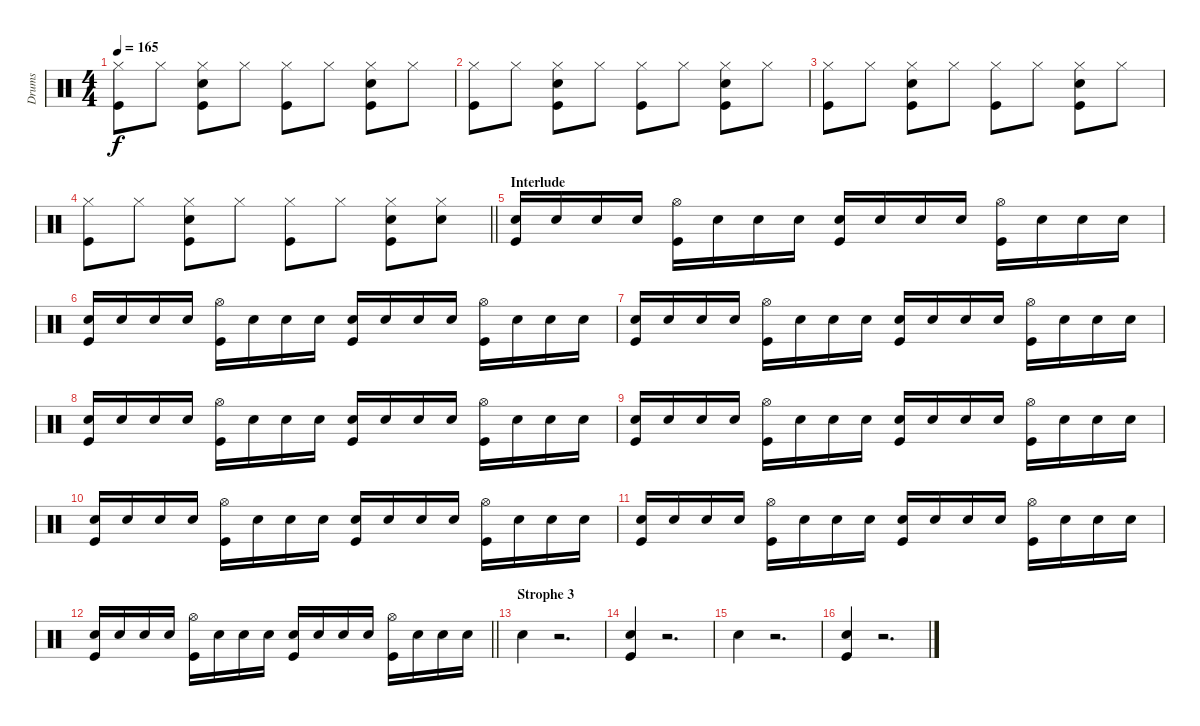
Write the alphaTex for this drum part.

\track ("Drums" "Drums") {instrument percussion}
\staff {score}
\articulation defaults
\ts (4 4)
\tempo 165
\clef neutral
\ks c
("Hi-Hat (closed)" "Kick (hit)").8{dy f} "Hi-Hat (closed)".8 ("Hi-Hat (closed)" "Kick (hit)" "Snare (hit) 2").8 "Hi-Hat (closed)".8 ("Hi-Hat (closed)" "Kick (hit)").8 "Hi-Hat (closed)".8 ("Hi-Hat (closed)" "Kick (hit)" "Snare (hit) 2").8 "Hi-Hat (closed)".8 |
("Hi-Hat (closed)" "Kick (hit)").8 "Hi-Hat (closed)".8 ("Hi-Hat (closed)" "Kick (hit)" "Snare (hit) 2").8 "Hi-Hat (closed)".8 ("Hi-Hat (closed)" "Kick (hit)").8 "Hi-Hat (closed)".8 ("Hi-Hat (closed)" "Kick (hit)" "Snare (hit) 2").8 "Hi-Hat (closed)".8 |
("Hi-Hat (closed)" "Kick (hit)").8 "Hi-Hat (closed)".8 ("Hi-Hat (closed)" "Kick (hit)" "Snare (hit) 2").8 "Hi-Hat (closed)".8 ("Hi-Hat (closed)" "Kick (hit)").8 "Hi-Hat (closed)".8 ("Hi-Hat (closed)" "Kick (hit)" "Snare (hit) 2").8 "Hi-Hat (closed)".8 |
\barLineRight lightlight
("Hi-Hat (closed)" "Kick (hit)").8 "Hi-Hat (closed)".8 ("Hi-Hat (closed)" "Kick (hit)" "Snare (hit) 2").8 "Hi-Hat (closed)".8 ("Hi-Hat (closed)" "Kick (hit)").8 "Hi-Hat (closed)".8 ("Hi-Hat (closed)" "Kick (hit)" "Snare (hit) 2").8 ("Hi-Hat (closed)" "Snare (hit) 2").8 |
\section ("" "Interlude")
("Kick (hit)" "Snare (hit) 2").16 "Snare (hit) 2".16 "Snare (hit) 2".16 "Snare (hit) 2".16 ("Hi-Hat (open)" "Kick (hit)").16 "Snare (hit) 2".16 "Snare (hit) 2".16 "Snare (hit) 2".16 ("Kick (hit)" "Snare (hit) 2").16 "Snare (hit) 2".16 "Snare (hit) 2".16 "Snare (hit) 2".16 ("Hi-Hat (open)" "Kick (hit)").16 "Snare (hit) 2".16 "Snare (hit) 2".16 "Snare (hit) 2".16 |
("Kick (hit)" "Snare (hit) 2").16 "Snare (hit) 2".16 "Snare (hit) 2".16 "Snare (hit) 2".16 ("Hi-Hat (open)" "Kick (hit)").16 "Snare (hit) 2".16 "Snare (hit) 2".16 "Snare (hit) 2".16 ("Kick (hit)" "Snare (hit) 2").16 "Snare (hit) 2".16 "Snare (hit) 2".16 "Snare (hit) 2".16 ("Hi-Hat (open)" "Kick (hit)").16 "Snare (hit) 2".16 "Snare (hit) 2".16 "Snare (hit) 2".16 |
("Kick (hit)" "Snare (hit) 2").16 "Snare (hit) 2".16 "Snare (hit) 2".16 "Snare (hit) 2".16 ("Hi-Hat (open)" "Kick (hit)").16 "Snare (hit) 2".16 "Snare (hit) 2".16 "Snare (hit) 2".16 ("Kick (hit)" "Snare (hit) 2").16 "Snare (hit) 2".16 "Snare (hit) 2".16 "Snare (hit) 2".16 ("Hi-Hat (open)" "Kick (hit)").16 "Snare (hit) 2".16 "Snare (hit) 2".16 "Snare (hit) 2".16 |
("Kick (hit)" "Snare (hit) 2").16 "Snare (hit) 2".16 "Snare (hit) 2".16 "Snare (hit) 2".16 ("Hi-Hat (open)" "Kick (hit)").16 "Snare (hit) 2".16 "Snare (hit) 2".16 "Snare (hit) 2".16 ("Kick (hit)" "Snare (hit) 2").16 "Snare (hit) 2".16 "Snare (hit) 2".16 "Snare (hit) 2".16 ("Hi-Hat (open)" "Kick (hit)").16 "Snare (hit) 2".16 "Snare (hit) 2".16 "Snare (hit) 2".16 |
("Kick (hit)" "Snare (hit) 2").16 "Snare (hit) 2".16 "Snare (hit) 2".16 "Snare (hit) 2".16 ("Hi-Hat (open)" "Kick (hit)").16 "Snare (hit) 2".16 "Snare (hit) 2".16 "Snare (hit) 2".16 ("Kick (hit)" "Snare (hit) 2").16 "Snare (hit) 2".16 "Snare (hit) 2".16 "Snare (hit) 2".16 ("Hi-Hat (open)" "Kick (hit)").16 "Snare (hit) 2".16 "Snare (hit) 2".16 "Snare (hit) 2".16 |
("Kick (hit)" "Snare (hit) 2").16 "Snare (hit) 2".16 "Snare (hit) 2".16 "Snare (hit) 2".16 ("Hi-Hat (open)" "Kick (hit)").16 "Snare (hit) 2".16 "Snare (hit) 2".16 "Snare (hit) 2".16 ("Kick (hit)" "Snare (hit) 2").16 "Snare (hit) 2".16 "Snare (hit) 2".16 "Snare (hit) 2".16 ("Hi-Hat (open)" "Kick (hit)").16 "Snare (hit) 2".16 "Snare (hit) 2".16 "Snare (hit) 2".16 |
("Kick (hit)" "Snare (hit) 2").16 "Snare (hit) 2".16 "Snare (hit) 2".16 "Snare (hit) 2".16 ("Hi-Hat (open)" "Kick (hit)").16 "Snare (hit) 2".16 "Snare (hit) 2".16 "Snare (hit) 2".16 ("Kick (hit)" "Snare (hit) 2").16 "Snare (hit) 2".16 "Snare (hit) 2".16 "Snare (hit) 2".16 ("Hi-Hat (open)" "Kick (hit)").16 "Snare (hit) 2".16 "Snare (hit) 2".16 "Snare (hit) 2".16 |
\barLineRight lightlight
("Kick (hit)" "Snare (hit) 2").16 "Snare (hit) 2".16 "Snare (hit) 2".16 "Snare (hit) 2".16 ("Hi-Hat (open)" "Kick (hit)").16 "Snare (hit) 2".16 "Snare (hit) 2".16 "Snare (hit) 2".16 ("Kick (hit)" "Snare (hit) 2").16 "Snare (hit) 2".16 "Snare (hit) 2".16 "Snare (hit) 2".16 ("Hi-Hat (open)" "Kick (hit)").16 "Snare (hit) 2".16 "Snare (hit) 2".16 "Snare (hit) 2".16 |
\section ("" "Strophe 3")
"Snare (hit) 2".4 r.2{d} |
("Kick (hit)" "Snare (hit) 2").4 r.2{d} |
"Snare (hit) 2".4 r.2{d} |
("Kick (hit)" "Snare (hit) 2").4 r.2{d}
